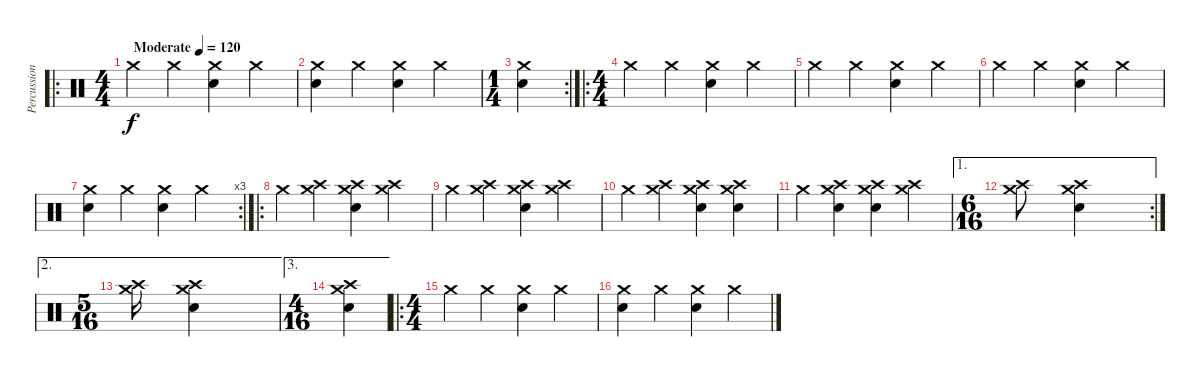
\track ("Percussion" "Percussion") {instrument percussion}
\staff {score}
\articulation defaults
\ro
\ts (4 4)
\tempo (120 "Moderate")
\clef neutral
\ks c "Crash medium (hit)".4{dy f} "Crash medium (hit)".4
("Crash medium (hit)" "Electric Snare (hit)").4 "Crash medium (hit)".4 |
("Crash medium (hit)" "Snare (hit) 2").4 "Crash medium (hit)".4 ("Crash medium (hit)" "Electric Snare (hit)").4 "Crash medium (hit)".4 |
\rc 2
\ts (1 4)
("Crash medium (hit)" "Electric Snare (hit)").4 |
\ro
\ts (4 4)
"Crash medium (hit)".4 "Crash medium (hit)".4 ("Crash medium (hit)" "Electric Snare (hit)").4 "Crash medium (hit)".4 |
"Crash medium (hit)".4 "Crash medium (hit)".4 ("Crash medium (hit)" "Electric Snare (hit)").4 "Crash medium (hit)".4 |
"Crash medium (hit)".4 "Crash medium (hit)".4 ("Crash medium (hit)" "Electric Snare (hit)").4 "Crash medium (hit)".4 |
\rc 3
("Crash medium (hit)" "Snare (hit) 2").4 "Crash medium (hit)".4 ("Crash medium (hit)" "Electric Snare (hit)").4 "Crash medium (hit)".4 |
\ro "Crash medium (hit)".4
("Crash medium (hit)" "Crash high (hit)").4 ("Crash medium (hit)" "Crash high (hit)" "Electric Snare (hit)").4 ("Crash medium (hit)" "Crash high (hit)").4 |
"Crash medium (hit)".4 ("Crash medium (hit)" "Crash high (hit)").4 ("Crash medium (hit)" "Crash high (hit)" "Snare (hit) 2").4 ("Crash medium (hit)" "Crash high (hit)").4 |
"Crash medium (hit)".4 ("Crash medium (hit)" "Crash high (hit)").4 ("Crash medium (hit)" "Crash high (hit)" "Electric Snare (hit)").4 ("Crash medium (hit)" "Crash high (hit)" "Snare (hit) 2").4 |
"Crash medium (hit)".4 ("Crash medium (hit)" "Crash high (hit)" "Snare (hit) 2").4 ("Crash medium (hit)" "Crash high (hit)" "Electric Snare (hit)").4 ("Crash medium (hit)" "Crash high (hit)").4 |
\ae 1
\rc 2
\ts (6 16)
("Crash medium (hit)" "Crash high (hit)").8 ("Crash medium (hit)" "Crash high (hit)" "Electric Snare (hit)").4 |
\ae 2
\ts (5 16)
("Crash medium (hit)" "Crash high (hit)").16 ("Crash medium (hit)" "Crash high (hit)" "Electric Snare (hit)").4 |
\ae 3
\ts (4 16)
("Crash medium (hit)" "Crash high (hit)" "Electric Snare (hit)").4 |
\ro
\ts (4 4)
"Crash medium (hit)".4 "Crash medium (hit)".4 ("Crash medium (hit)" "Electric Snare (hit)").4 "Crash medium (hit)".4 |
("Crash medium (hit)" "Snare (hit) 2").4 "Crash medium (hit)".4 ("Crash medium (hit)" "Electric Snare (hit)").4 "Crash medium (hit)".4
